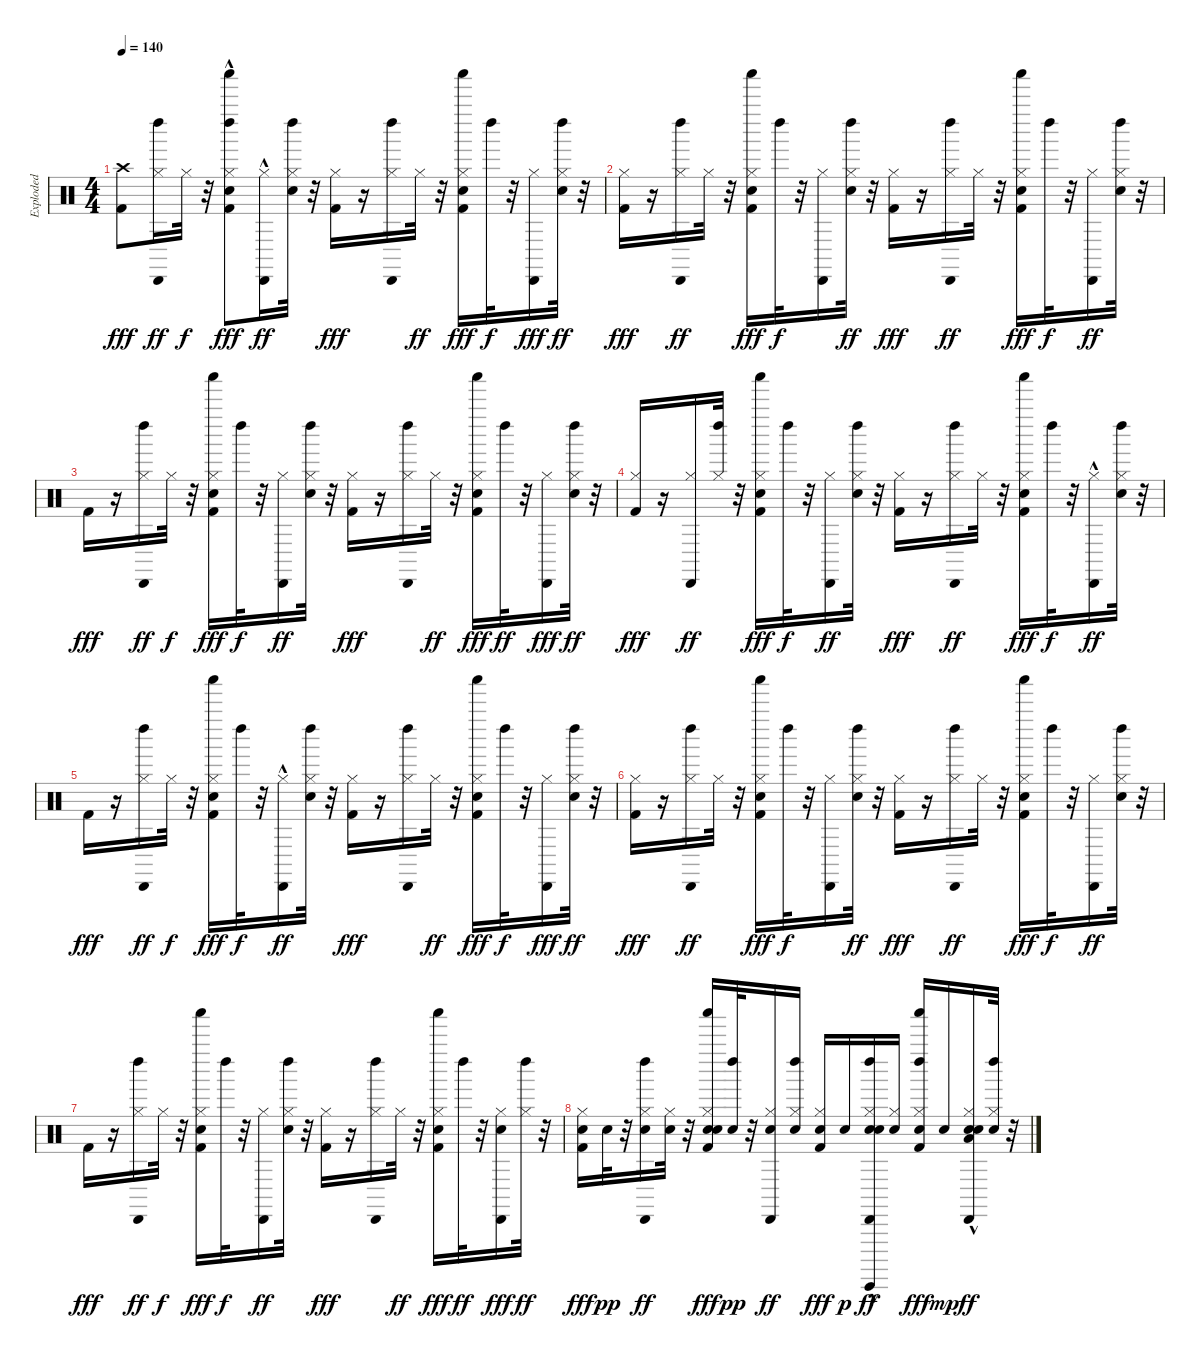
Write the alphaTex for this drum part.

\track ("Exploded" "Exploded") {instrument percussion}
\staff {score}
\articulation defaults
\ts (4 4)
\tempo 140
\clef neutral
\ks c
("Crash high (hit)" "Kick (hit) 2").8{dy fff} ("Left Maraca (hit)" "Cabasa (hit)" "Hi-Hat (closed)").16{dy ff} "Hi-Hat (closed)".32{dy f} r.32 ("Left Maraca (hit)" "Hand Clap (hit)"{hac} "Shaker (hit)" "Hi-Hat (closed)" "Kick (hit) 2").8{dy fff} ("Cabasa (hit)"{hac} "Hi-Hat (closed)").16{dy ff} ("Snare (hit) 2" "Left Maraca (hit)" "Hi-Hat (closed)").32 r.32 ("Hi-Hat (closed)" "Kick (hit) 2").16{dy fff} r.16 ("Left Maraca (hit)" "Cabasa (hit)" "Hi-Hat (closed)").16 "Hi-Hat (closed)".32{dy ff} r.32 ("Hand Clap (hit)" "Shaker (hit)" "Hi-Hat (closed)" "Kick (hit) 2").16{dy fff} "Left Maraca (hit)".32{dy f} r.32 ("Cabasa (hit)" "Hi-Hat (closed)").16{dy fff} ("Snare (hit) 2" "Left Maraca (hit)" "Hi-Hat (closed)").32{dy ff} r.32 |
("Hi-Hat (closed)" "Kick (hit) 2").16{dy fff} r.16 ("Left Maraca (hit)" "Cabasa (hit)" "Hi-Hat (closed)").16{dy ff} "Hi-Hat (closed)".32 r.32 ("Hand Clap (hit)" "Shaker (hit)" "Hi-Hat (closed)" "Kick (hit) 2").16{dy fff} "Left Maraca (hit)".32{dy f} r.32 ("Cabasa (hit)" "Hi-Hat (closed)").16 ("Snare (hit) 2" "Left Maraca (hit)" "Hi-Hat (closed)").32{dy ff} r.32 ("Hi-Hat (closed)" "Kick (hit) 2").16{dy fff} r.16 ("Left Maraca (hit)" "Cabasa (hit)" "Hi-Hat (closed)").16{dy ff} "Hi-Hat (closed)".32 r.32 ("Hand Clap (hit)" "Shaker (hit)" "Hi-Hat (closed)" "Kick (hit) 2").16{dy fff} "Left Maraca (hit)".32{dy f} r.32 ("Cabasa (hit)" "Hi-Hat (closed)").16{dy ff} ("Snare (hit) 2" "Left Maraca (hit)" "Hi-Hat (closed)").32 r.32 |
"Kick (hit) 2".16{dy fff} r.16 ("Left Maraca (hit)" "Cabasa (hit)" "Hi-Hat (closed)").16{dy ff} "Hi-Hat (closed)".32{dy f} r.32 ("Hand Clap (hit)" "Shaker (hit)" "Hi-Hat (closed)" "Kick (hit) 2").16{dy fff} "Left Maraca (hit)".32{dy f} r.32 ("Cabasa (hit)" "Hi-Hat (closed)").16{dy ff} ("Snare (hit) 2" "Left Maraca (hit)" "Hi-Hat (closed)").32 r.32 ("Hi-Hat (closed)" "Kick (hit) 2").16{dy fff} r.16 ("Left Maraca (hit)" "Cabasa (hit)" "Hi-Hat (closed)").16 "Hi-Hat (closed)".32{dy ff} r.32 ("Hand Clap (hit)" "Shaker (hit)" "Hi-Hat (closed)" "Kick (hit) 2").16{dy fff} "Left Maraca (hit)".32{dy ff} r.32 ("Cabasa (hit)" "Hi-Hat (closed)").16{dy fff} ("Snare (hit) 2" "Left Maraca (hit)" "Hi-Hat (closed)").32{dy ff} r.32 |
("Hi-Hat (closed)" "Kick (hit) 2").16{dy fff} r.16 ("Cabasa (hit)" "Hi-Hat (closed)").16{dy ff} ("Left Maraca (hit)" "Hi-Hat (closed)").32 r.32 ("Hand Clap (hit)" "Shaker (hit)" "Hi-Hat (closed)" "Kick (hit) 2").16{dy fff} "Left Maraca (hit)".32{dy f} r.32 ("Cabasa (hit)" "Hi-Hat (closed)").16{dy ff} ("Snare (hit) 2" "Left Maraca (hit)" "Hi-Hat (closed)").32 r.32 ("Hi-Hat (closed)" "Kick (hit) 2").16{dy fff} r.16 ("Left Maraca (hit)" "Cabasa (hit)" "Hi-Hat (closed)").16{dy ff} "Hi-Hat (closed)".32 r.32 ("Hand Clap (hit)" "Shaker (hit)" "Hi-Hat (closed)" "Kick (hit) 2").16{dy fff} "Left Maraca (hit)".32{dy f} r.32 ("Cabasa (hit)"{hac} "Hi-Hat (closed)").16{dy ff} ("Snare (hit) 2" "Left Maraca (hit)" "Hi-Hat (closed)").32 r.32 |
"Kick (hit) 2".16{dy fff} r.16 ("Left Maraca (hit)" "Cabasa (hit)" "Hi-Hat (closed)").16{dy ff} "Hi-Hat (closed)".32{dy f} r.32 ("Hand Clap (hit)" "Shaker (hit)" "Hi-Hat (closed)" "Kick (hit) 2").16{dy fff} "Left Maraca (hit)".32{dy f} r.32 ("Cabasa (hit)"{hac} "Hi-Hat (closed)").16{dy ff} ("Snare (hit) 2" "Left Maraca (hit)" "Hi-Hat (closed)").32 r.32 ("Hi-Hat (closed)" "Kick (hit) 2").16{dy fff} r.16 ("Left Maraca (hit)" "Cabasa (hit)" "Hi-Hat (closed)").16 "Hi-Hat (closed)".32{dy ff} r.32 ("Hand Clap (hit)" "Shaker (hit)" "Hi-Hat (closed)" "Kick (hit) 2").16{dy fff} "Left Maraca (hit)".32{dy f} r.32 ("Cabasa (hit)" "Hi-Hat (closed)").16{dy fff} ("Snare (hit) 2" "Left Maraca (hit)" "Hi-Hat (closed)").32{dy ff} r.32 |
("Hi-Hat (closed)" "Kick (hit) 2").16{dy fff} r.16 ("Left Maraca (hit)" "Cabasa (hit)" "Hi-Hat (closed)").16{dy ff} "Hi-Hat (closed)".32 r.32 ("Hand Clap (hit)" "Shaker (hit)" "Hi-Hat (closed)" "Kick (hit) 2").16{dy fff} "Left Maraca (hit)".32{dy f} r.32 ("Cabasa (hit)" "Hi-Hat (closed)").16 ("Snare (hit) 2" "Left Maraca (hit)" "Hi-Hat (closed)").32{dy ff} r.32 ("Hi-Hat (closed)" "Kick (hit) 2").16{dy fff} r.16 ("Left Maraca (hit)" "Cabasa (hit)" "Hi-Hat (closed)").16{dy ff} "Hi-Hat (closed)".32 r.32 ("Hand Clap (hit)" "Shaker (hit)" "Hi-Hat (closed)" "Kick (hit) 2").16{dy fff} "Left Maraca (hit)".32{dy f} r.32 ("Cabasa (hit)" "Hi-Hat (closed)").16{dy ff} ("Snare (hit) 2" "Left Maraca (hit)" "Hi-Hat (closed)").32 r.32 |
"Kick (hit) 2".16{dy fff} r.16 ("Left Maraca (hit)" "Cabasa (hit)" "Hi-Hat (closed)").16{dy ff} "Hi-Hat (closed)".32{dy f} r.32 ("Hand Clap (hit)" "Shaker (hit)" "Hi-Hat (closed)" "Kick (hit) 2").16{dy fff} "Left Maraca (hit)".32{dy f} r.32 ("Cabasa (hit)" "Hi-Hat (closed)").16{dy ff} ("Snare (hit) 2" "Left Maraca (hit)" "Hi-Hat (closed)").32 r.32 ("Hi-Hat (closed)" "Kick (hit) 2").16{dy fff} r.16 ("Left Maraca (hit)" "Cabasa (hit)" "Hi-Hat (closed)").16 "Hi-Hat (closed)".32{dy ff} r.32 ("Hand Clap (hit)" "Shaker (hit)" "Hi-Hat (closed)" "Kick (hit) 2").16{dy fff} "Left Maraca (hit)".32{dy ff} r.32 ("Snare (hit) 2" "Cabasa (hit)" "Hi-Hat (closed)").16{dy fff} ("Left Maraca (hit)" "Hi-Hat (closed)").32{dy ff} r.32 |
("Snare (hit) 2" "Hi-Hat (closed)" "Kick (hit) 2").16{dy fff} "Snare (hit) 2".32{dy pp} r.32 ("Left Maraca (hit)" "Snare (hit) 2" "Cabasa (hit)" "Hi-Hat (closed)").16{dy ff} ("Snare (hit) 2" "Hi-Hat (closed)").32 r.32 ("Snare (hit) 2" "Hand Clap (hit)" "Shaker (hit)" "Hi-Hat (closed)" "Kick (hit) 2").16{dy fff} ("Left Maraca (hit)" "Snare (hit) 2").32{dy pp} r.32 ("Snare (hit) 2" "Cabasa (hit)" "Hi-Hat (closed)").16{dy ff} ("Left Maraca (hit)" "Snare (hit) 2" "Hi-Hat (closed)").16 ("Snare (hit) 2" "Hi-Hat (closed)" "Kick (hit) 2").16{dy fff} "Snare (hit) 2".16{dy p} ("Left Maraca (hit)" "Snare (hit) 2" "Hand Clap (hit)" "Guiro (hit)"{hac} "Cabasa (hit)" "Hi-Hat (closed)").16{dy ff} ("Snare (hit) 2" "Hi-Hat (closed)").16 ("Left Maraca (hit)" "Snare (hit) 2" "Shaker (hit)" "Hi-Hat (closed)" "Kick (hit) 2").16{dy fff} "Snare (hit) 2".16{dy mp} ("Low Floor Tom (hit)" "Snare (hit) 2" "Hand Clap (hit)" "Cabasa (hit)"{hac} "Hi-Hat (closed)").16{dy ff} ("Left Maraca (hit)" "Snare (hit) 2" "Hi-Hat (closed)").32 r.32
